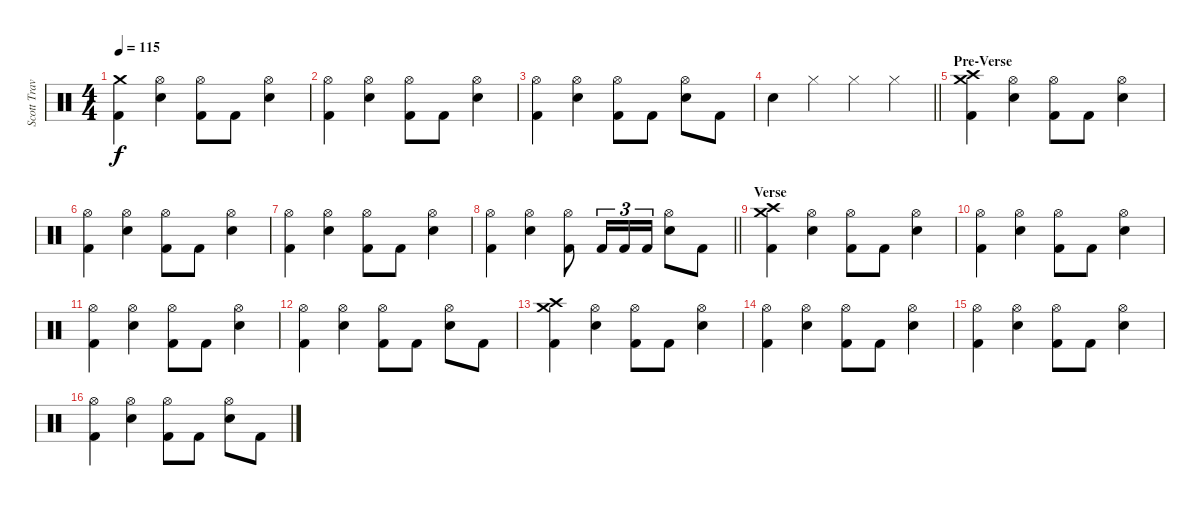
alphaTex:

\track ("Scott Travis" "Scott Trav") {instrument percussion}
\staff {score}
\articulation defaults
\ts (4 4)
\tempo 115
\clef neutral
\ks c
("Crash medium (hit)" "Kick (hit) 2").4{dy f} ("Hi-Hat (open)" "Snare (hit) 2").4 ("Hi-Hat (open)" "Kick (hit) 2").8 "Kick (hit) 2".8 ("Hi-Hat (open)" "Snare (hit) 2").4 |
("Hi-Hat (open)" "Kick (hit) 2").4 ("Hi-Hat (open)" "Snare (hit) 2").4 ("Hi-Hat (open)" "Kick (hit) 2").8 "Kick (hit) 2".8 ("Hi-Hat (open)" "Snare (hit) 2").4 |
("Hi-Hat (open)" "Kick (hit) 2").4 ("Hi-Hat (open)" "Snare (hit) 2").4 ("Hi-Hat (open)" "Kick (hit) 2").8 "Kick (hit) 2".8 ("Hi-Hat (open)" "Snare (hit) 2").8 "Kick (hit) 2".8 |
\barLineRight lightlight "Snare (hit) 2".4 "Hi-Hat (closed)".4 "Hi-Hat (closed)".4 "Hi-Hat (closed)".4
|
\section ("" "Pre-Verse")
("Crash medium (hit)" "Crash high (hit)" "Kick (hit) 2").4 ("Hi-Hat (open)" "Snare (hit) 2").4 ("Hi-Hat (open)" "Kick (hit) 2").8 "Kick (hit) 2".8 ("Hi-Hat (open)" "Snare (hit) 2").4 |
("Hi-Hat (open)" "Kick (hit) 2").4 ("Hi-Hat (open)" "Snare (hit) 2").4 ("Hi-Hat (open)" "Kick (hit) 2").8 "Kick (hit) 2".8 ("Hi-Hat (open)" "Snare (hit) 2").4 |
("Hi-Hat (open)" "Kick (hit) 2").4 ("Hi-Hat (open)" "Snare (hit) 2").4 ("Hi-Hat (open)" "Kick (hit) 2").8 "Kick (hit) 2".8 ("Hi-Hat (open)" "Snare (hit) 2").4 |
\barLineRight lightlight
("Hi-Hat (open)" "Kick (hit) 2").4 ("Hi-Hat (open)" "Snare (hit) 2").4 ("Hi-Hat (open)" "Kick (hit) 2").8 "Kick (hit) 2".16{tu (3 2)} "Kick (hit) 2".16{tu (3 2)} "Kick (hit) 2".16{tu (3 2)} ("Hi-Hat (open)" "Snare (hit) 2").8 "Kick (hit) 2".8 |
\section ("" "Verse")
("Crash medium (hit)" "Crash high (hit)" "Kick (hit) 2").4 ("Hi-Hat (open)" "Snare (hit) 2").4 ("Hi-Hat (open)" "Kick (hit) 2").8 "Kick (hit) 2".8 ("Hi-Hat (open)" "Snare (hit) 2").4 |
("Hi-Hat (open)" "Kick (hit) 2").4 ("Hi-Hat (open)" "Snare (hit) 2").4 ("Hi-Hat (open)" "Kick (hit) 2").8 "Kick (hit) 2".8 ("Hi-Hat (open)" "Snare (hit) 2").4 |
("Hi-Hat (open)" "Kick (hit) 2").4 ("Hi-Hat (open)" "Snare (hit) 2").4 ("Hi-Hat (open)" "Kick (hit) 2").8 "Kick (hit) 2".8 ("Hi-Hat (open)" "Snare (hit) 2").4 |
("Hi-Hat (open)" "Kick (hit) 2").4 ("Hi-Hat (open)" "Snare (hit) 2").4 ("Hi-Hat (open)" "Kick (hit) 2").8 "Kick (hit) 2".8 ("Hi-Hat (open)" "Snare (hit) 2").8 "Kick (hit) 2".8 |
("Crash medium (hit)" "Crash high (hit)" "Kick (hit) 2").4 ("Hi-Hat (open)" "Snare (hit) 2").4 ("Hi-Hat (open)" "Kick (hit) 2").8 "Kick (hit) 2".8 ("Hi-Hat (open)" "Snare (hit) 2").4 |
("Hi-Hat (open)" "Kick (hit) 2").4 ("Hi-Hat (open)" "Snare (hit) 2").4 ("Hi-Hat (open)" "Kick (hit) 2").8 "Kick (hit) 2".8 ("Hi-Hat (open)" "Snare (hit) 2").4 |
("Hi-Hat (open)" "Kick (hit) 2").4 ("Hi-Hat (open)" "Snare (hit) 2").4 ("Hi-Hat (open)" "Kick (hit) 2").8 "Kick (hit) 2".8 ("Hi-Hat (open)" "Snare (hit) 2").4 |
("Hi-Hat (open)" "Kick (hit) 2").4 ("Hi-Hat (open)" "Snare (hit) 2").4 ("Hi-Hat (open)" "Kick (hit) 2").8 "Kick (hit) 2".8 ("Hi-Hat (open)" "Snare (hit) 2").8 "Kick (hit) 2".8
